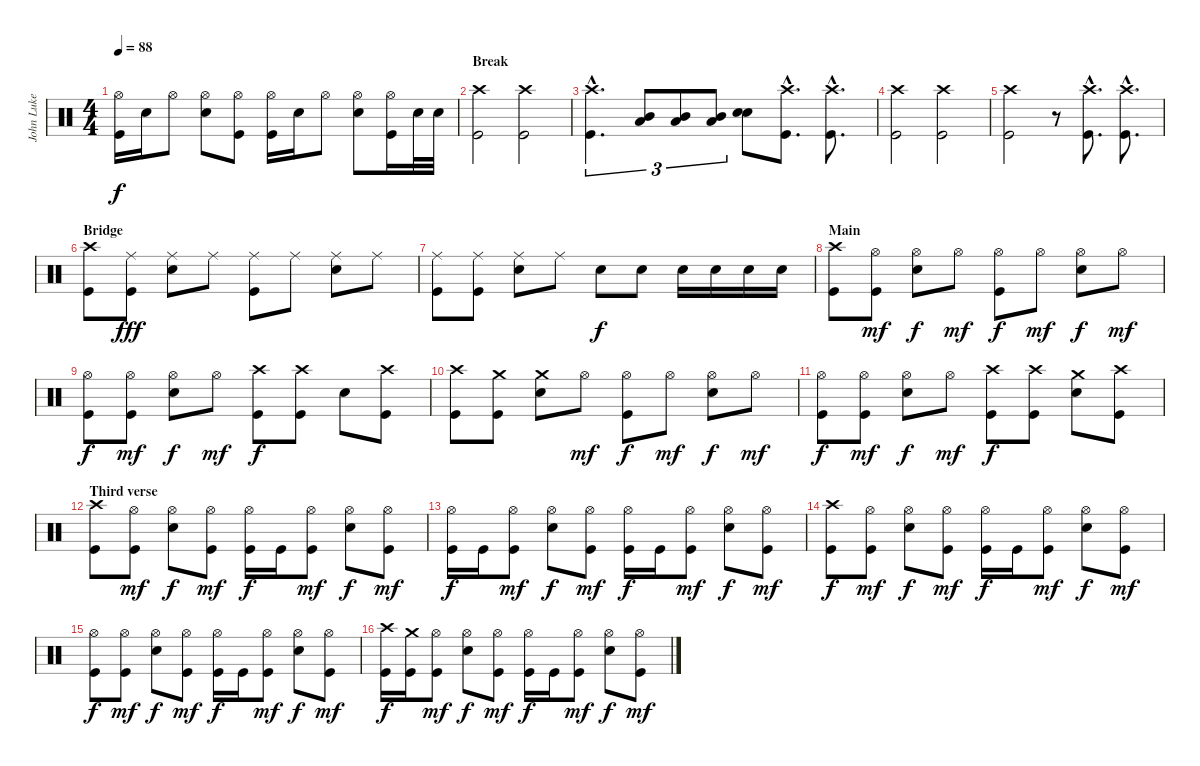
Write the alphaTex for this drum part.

\track ("John Luke (Drums)" "John Luke ") {instrument percussion}
\staff {score}
\articulation defaults
\ts (4 4)
\tempo 88
\clef neutral
\ks c
("Hi-Hat (open)" "Kick (hit)").16{dy f} "Electric Snare (hit)".16 "Hi-Hat (open)".8 ("Hi-Hat (open)" "Electric Snare (hit)").8 ("Hi-Hat (open)" "Kick (hit)").8 ("Hi-Hat (open)" "Kick (hit)").16 "Electric Snare (hit)".16 "Hi-Hat (open)".8 ("Hi-Hat (open)" "Electric Snare (hit)").8 ("Hi-Hat (open)" "Kick (hit)").16 "Electric Snare (hit)".32 "Electric Snare (hit)".32 |
\section ("" "Break")
("Crash high (hit)" "Kick (hit)").2 ("Crash high (hit)" "Kick (hit)").2 |
("Crash high (hit)"{hac} "Kick (hit)"{hac}).4{d tu (3 2)} ("Mid Tom (hit)" "Low Tom (hit)").8{tu (3 2) bu 60} ("Mid Tom (hit)" "Low Tom (hit)").8{tu (3 2) bu 60} ("Mid Tom (hit)" "Low Tom (hit)").8{tu (3 2) bu 60} ("Electric Snare (hit)" "Electric Snare (hit)").8{bu 60} ("Crash high (hit)"{hac} "Kick (hit)"{hac}).8{d} ("Crash high (hit)"{hac} "Kick (hit)"{hac}).8{d} |
("Crash high (hit)" "Kick (hit)").2 ("Crash high (hit)" "Kick (hit)").2 |
("Crash high (hit)" "Kick (hit)").2 r.8 ("Crash high (hit)"{hac} "Kick (hit)"{hac}).8{d} ("Crash high (hit)"{hac} "Kick (hit)"{hac}).8{d} |
\section ("" "Bridge")
("Crash high (hit)" "Kick (hit)").8 ("Ride (middle)" "Kick (hit)").8{dy fff} ("Ride (middle)" "Electric Snare (hit)").8 "Ride (middle)".8 ("Ride (middle)" "Kick (hit)").8 "Ride (middle)".8 ("Ride (middle)" "Electric Snare (hit)").8 "Ride (middle)".8 |
("Ride (middle)" "Kick (hit)").8 ("Ride (middle)" "Kick (hit)").8 ("Ride (middle)" "Electric Snare (hit)").8 "Ride (middle)".8 "Electric Snare (hit)".8{dy f} "Electric Snare (hit)".8 "Electric Snare (hit)".16 "Electric Snare (hit)".16 "Electric Snare (hit)".16 "Electric Snare (hit)".16 |
\section ("" "Main")
("Crash high (hit)" "Kick (hit)").8 ("Hi-Hat (open)" "Kick (hit)").8{dy mf} ("Hi-Hat (open)" "Electric Snare (hit)").8{dy f} "Hi-Hat (open)".8{dy mf} ("Hi-Hat (open)" "Kick (hit)").8{dy f} "Hi-Hat (open)".8{dy mf} ("Hi-Hat (open)" "Electric Snare (hit)").8{dy f} "Hi-Hat (open)".8{dy mf} |
("Hi-Hat (open)" "Kick (hit)").8{dy f} ("Hi-Hat (open)" "Kick (hit)").8{dy mf} ("Hi-Hat (open)" "Electric Snare (hit)").8{dy f} "Hi-Hat (open)".8{dy mf} ("Crash high (hit)" "Kick (hit)").8{dy f} ("Crash high (hit)" "Kick (hit)").8 "Electric Snare (hit)".8 ("Crash high (hit)" "Kick (hit)").8 |
("Crash high (hit)" "Kick (hit)").8 ("Crash medium (hit)" "Kick (hit)").8 ("Crash medium (hit)" "Electric Snare (hit)").8 "Hi-Hat (open)".8{dy mf} ("Hi-Hat (open)" "Kick (hit)").8{dy f} "Hi-Hat (open)".8{dy mf} ("Hi-Hat (open)" "Electric Snare (hit)").8{dy f} "Hi-Hat (open)".8{dy mf} |
("Hi-Hat (open)" "Kick (hit)").8{dy f} ("Hi-Hat (open)" "Kick (hit)").8{dy mf} ("Hi-Hat (open)" "Electric Snare (hit)").8{dy f} "Hi-Hat (open)".8{dy mf} ("Crash high (hit)" "Kick (hit)").8{dy f} ("Crash high (hit)" "Kick (hit)").8 ("Crash medium (hit)" "Electric Snare (hit)").8 ("Crash high (hit)" "Kick (hit)").8 |
\section ("" "Third verse")
("Crash high (hit)" "Kick (hit)").8 ("Hi-Hat (open)" "Kick (hit)").8{dy mf} ("Hi-Hat (open)" "Electric Snare (hit)").8{dy f} ("Hi-Hat (open)" "Kick (hit)").8{dy mf} ("Hi-Hat (open)" "Kick (hit)").16{dy f} "Kick (hit)".16 ("Hi-Hat (open)" "Kick (hit)").8{dy mf} ("Hi-Hat (open)" "Electric Snare (hit)").8{dy f} ("Hi-Hat (open)" "Kick (hit)").8{dy mf} |
("Hi-Hat (open)" "Kick (hit)").16{dy f} "Kick (hit)".16 ("Hi-Hat (open)" "Kick (hit)").8{dy mf} ("Hi-Hat (open)" "Electric Snare (hit)").8{dy f} ("Hi-Hat (open)" "Kick (hit)").8{dy mf} ("Hi-Hat (open)" "Kick (hit)").16{dy f} "Kick (hit)".16 ("Hi-Hat (open)" "Kick (hit)").8{dy mf} ("Hi-Hat (open)" "Electric Snare (hit)").8{dy f} ("Hi-Hat (open)" "Kick (hit)").8{dy mf} |
("Crash high (hit)" "Kick (hit)").8{dy f} ("Hi-Hat (open)" "Kick (hit)").8{dy mf} ("Hi-Hat (open)" "Electric Snare (hit)").8{dy f} ("Hi-Hat (open)" "Kick (hit)").8{dy mf} ("Hi-Hat (open)" "Kick (hit)").16{dy f} "Kick (hit)".16 ("Hi-Hat (open)" "Kick (hit)").8{dy mf} ("Hi-Hat (open)" "Electric Snare (hit)").8{dy f} ("Hi-Hat (open)" "Kick (hit)").8{dy mf} |
("Hi-Hat (open)" "Kick (hit)").8{dy f} ("Hi-Hat (open)" "Kick (hit)").8{dy mf} ("Hi-Hat (open)" "Electric Snare (hit)").8{dy f} ("Hi-Hat (open)" "Kick (hit)").8{dy mf} ("Hi-Hat (open)" "Kick (hit)").16{dy f} "Kick (hit)".16 ("Hi-Hat (open)" "Kick (hit)").8{dy mf} ("Hi-Hat (open)" "Electric Snare (hit)").8{dy f} ("Hi-Hat (open)" "Kick (hit)").8{dy mf} |
("Crash high (hit)" "Kick (hit)").16{dy f} ("Crash medium (hit)" "Kick (hit)").16 ("Hi-Hat (open)" "Kick (hit)").8{dy mf} ("Hi-Hat (open)" "Electric Snare (hit)").8{dy f} ("Hi-Hat (open)" "Kick (hit)").8{dy mf} ("Hi-Hat (open)" "Kick (hit)").16{dy f} "Kick (hit)".16 ("Hi-Hat (open)" "Kick (hit)").8{dy mf} ("Hi-Hat (open)" "Electric Snare (hit)").8{dy f} ("Hi-Hat (open)" "Kick (hit)").8{dy mf}
